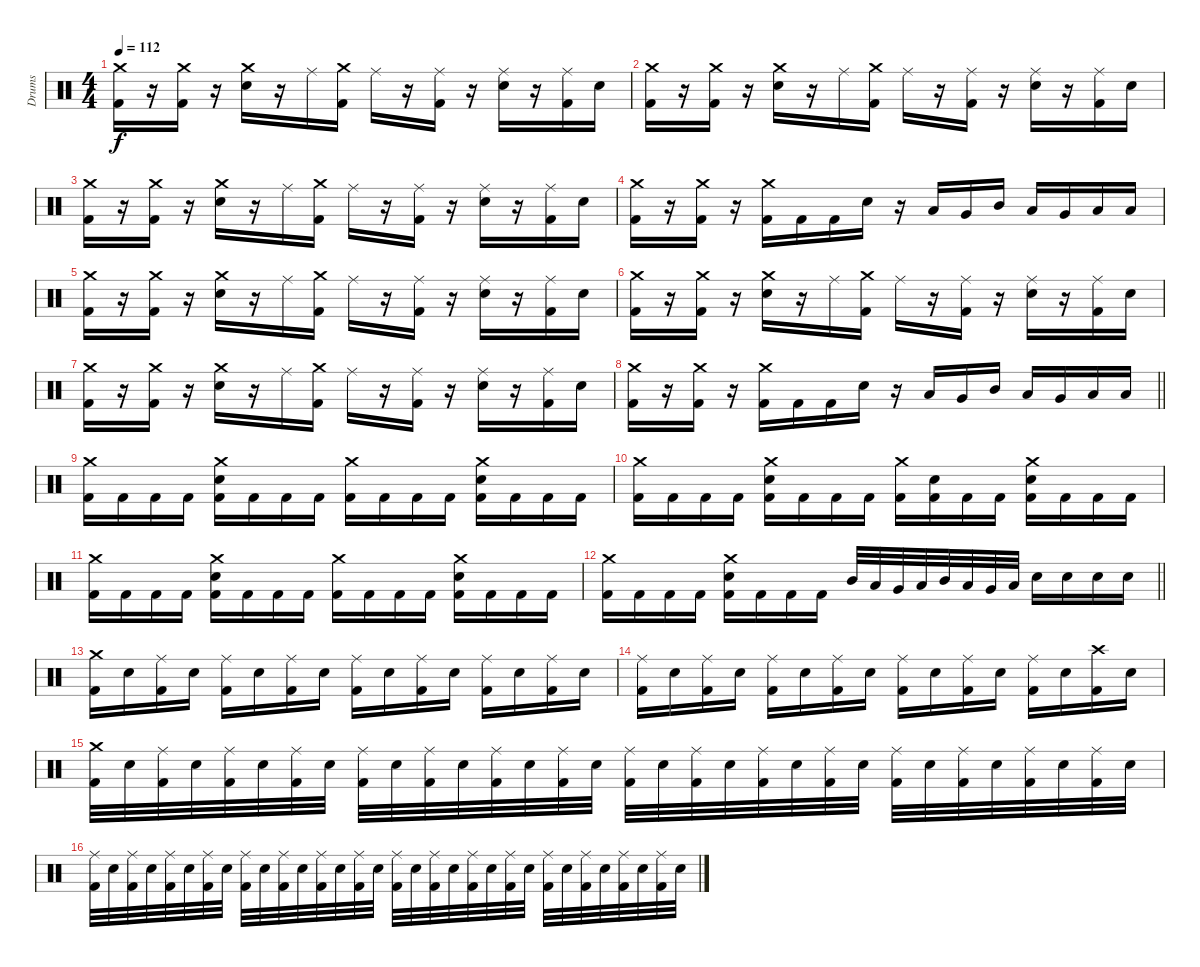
\track ("Drums" "Drums") {instrument percussion}
\staff {score}
\articulation defaults
\ts (4 4)
\section ("" "")
\tempo 112
\clef neutral
\ks c
("Crash medium (hit)" "Kick (hit) 2").16{dy f} r.16 ("Crash medium (hit)" "Kick (hit) 2").16 r.16 ("Crash medium (hit)" "Electric Snare (hit)").16 r.16 "Ride (middle)".16 ("Crash medium (hit)" "Kick (hit) 2").16 "Ride (middle)".16 r.16 ("Ride (middle)" "Kick (hit) 2").16 r.16 ("Ride (middle)" "Electric Snare (hit)").16 r.16 ("Ride (middle)" "Kick (hit) 2").16 "Electric Snare (hit)".16 |
("Crash medium (hit)" "Kick (hit) 2").16 r.16 ("Crash medium (hit)" "Kick (hit) 2").16 r.16 ("Crash medium (hit)" "Electric Snare (hit)").16 r.16 "Ride (middle)".16 ("Crash medium (hit)" "Kick (hit) 2").16 "Ride (middle)".16 r.16 ("Ride (middle)" "Kick (hit) 2").16 r.16 ("Ride (middle)" "Electric Snare (hit)").16 r.16 ("Ride (middle)" "Kick (hit) 2").16 "Electric Snare (hit)".16 |
("Crash medium (hit)" "Kick (hit) 2").16 r.16 ("Crash medium (hit)" "Kick (hit) 2").16 r.16 ("Crash medium (hit)" "Electric Snare (hit)").16 r.16 "Ride (middle)".16 ("Crash medium (hit)" "Kick (hit) 2").16 "Ride (middle)".16 r.16 ("Ride (middle)" "Kick (hit) 2").16 r.16 ("Ride (middle)" "Electric Snare (hit)").16 r.16 ("Ride (middle)" "Kick (hit) 2").16 "Electric Snare (hit)".16 |
("Crash medium (hit)" "Kick (hit) 2").16 r.16 ("Crash medium (hit)" "Kick (hit) 2").16 r.16 ("Crash medium (hit)" "Kick (hit) 2").16 "Kick (hit) 2".16 "Kick (hit) 2".16 "Electric Snare (hit)".16 r.16 "Low Tom (hit)".16 "Very Low Tom (hit)".16 "Mid Tom (hit)".16 "Low Tom (hit)".16 "Very Low Tom (hit)".16 "Low Floor Tom (hit)".16 "Low Floor Tom (hit)".16 |
("Crash medium (hit)" "Kick (hit) 2").16 r.16 ("Crash medium (hit)" "Kick (hit) 2").16 r.16 ("Crash medium (hit)" "Electric Snare (hit)").16 r.16 "Ride (middle)".16 ("Crash medium (hit)" "Kick (hit) 2").16 "Ride (middle)".16 r.16 ("Ride (middle)" "Kick (hit) 2").16 r.16 ("Ride (middle)" "Electric Snare (hit)").16 r.16 ("Ride (middle)" "Kick (hit) 2").16 "Electric Snare (hit)".16 |
("Crash medium (hit)" "Kick (hit) 2").16 r.16 ("Crash medium (hit)" "Kick (hit) 2").16 r.16 ("Crash medium (hit)" "Electric Snare (hit)").16 r.16 "Ride (middle)".16 ("Crash medium (hit)" "Kick (hit) 2").16 "Ride (middle)".16 r.16 ("Ride (middle)" "Kick (hit) 2").16 r.16 ("Ride (middle)" "Electric Snare (hit)").16 r.16 ("Ride (middle)" "Kick (hit) 2").16 "Electric Snare (hit)".16 |
("Crash medium (hit)" "Kick (hit) 2").16 r.16 ("Crash medium (hit)" "Kick (hit) 2").16 r.16 ("Crash medium (hit)" "Electric Snare (hit)").16 r.16 "Ride (middle)".16 ("Crash medium (hit)" "Kick (hit) 2").16 "Ride (middle)".16 r.16 ("Ride (middle)" "Kick (hit) 2").16 r.16 ("Ride (middle)" "Electric Snare (hit)").16 r.16 ("Ride (middle)" "Kick (hit) 2").16 "Electric Snare (hit)".16 |
\barLineRight lightlight
("Crash medium (hit)" "Kick (hit) 2").16 r.16 ("Crash medium (hit)" "Kick (hit) 2").16 r.16 ("Crash medium (hit)" "Kick (hit) 2").16 "Kick (hit) 2".16 "Kick (hit) 2".16 "Electric Snare (hit)".16 r.16 "Low Tom (hit)".16 "Very Low Tom (hit)".16 "Mid Tom (hit)".16 "Low Tom (hit)".16 "Very Low Tom (hit)".16 "Low Floor Tom (hit)".16 "Low Floor Tom (hit)".16 |
\section ("" "")
("Crash medium (hit)" "Kick (hit) 2").16 "Kick (hit) 2".16 "Kick (hit) 2".16 "Kick (hit) 2".16 ("Crash medium (hit)" "Electric Snare (hit)" "Kick (hit) 2").16 "Kick (hit) 2".16 "Kick (hit) 2".16 "Kick (hit) 2".16 ("Crash medium (hit)" "Kick (hit) 2").16 "Kick (hit) 2".16 "Kick (hit) 2".16 "Kick (hit) 2".16 ("Crash medium (hit)" "Electric Snare (hit)" "Kick (hit) 2").16 "Kick (hit) 2".16 "Kick (hit) 2".16 "Kick (hit) 2".16 |
("Crash medium (hit)" "Kick (hit) 2").16 "Kick (hit) 2".16 "Kick (hit) 2".16 "Kick (hit) 2".16 ("Crash medium (hit)" "Electric Snare (hit)" "Kick (hit) 2").16 "Kick (hit) 2".16 "Kick (hit) 2".16 "Kick (hit) 2".16 ("Crash medium (hit)" "Kick (hit) 2").16 ("Electric Snare (hit)" "Kick (hit) 2").16 "Kick (hit) 2".16 "Kick (hit) 2".16 ("Crash medium (hit)" "Electric Snare (hit)" "Kick (hit) 2").16 "Kick (hit) 2".16 "Kick (hit) 2".16 "Kick (hit) 2".16 |
("Crash medium (hit)" "Kick (hit) 2").16 "Kick (hit) 2".16 "Kick (hit) 2".16 "Kick (hit) 2".16 ("Crash medium (hit)" "Electric Snare (hit)" "Kick (hit) 2").16 "Kick (hit) 2".16 "Kick (hit) 2".16 "Kick (hit) 2".16 ("Crash medium (hit)" "Kick (hit) 2").16 "Kick (hit) 2".16 "Kick (hit) 2".16 "Kick (hit) 2".16 ("Crash medium (hit)" "Electric Snare (hit)" "Kick (hit) 2").16 "Kick (hit) 2".16 "Kick (hit) 2".16 "Kick (hit) 2".16 |
\barLineRight lightlight
("Crash medium (hit)" "Kick (hit) 2").16 "Kick (hit) 2".16 "Kick (hit) 2".16 "Kick (hit) 2".16 ("Crash medium (hit)" "Electric Snare (hit)" "Kick (hit) 2").16 "Kick (hit) 2".16 "Kick (hit) 2".16 "Kick (hit) 2".16 "Mid Tom (hit)".32 "Low Tom (hit)".32 "Very Low Tom (hit)".32 "Low Floor Tom (hit)".32 "Mid Tom (hit)".32 "Low Tom (hit)".32 "Very Low Tom (hit)".32 "Low Floor Tom (hit)".32 "Electric Snare (hit)".16 "Electric Snare (hit)".16 "Electric Snare (hit)".16 "Electric Snare (hit)".16 |
\section ("" "")
("Crash medium (hit)" "Kick (hit) 2").16 "Electric Snare (hit)".16 ("Ride (middle)" "Kick (hit) 2").16 "Electric Snare (hit)".16 ("Ride (middle)" "Kick (hit) 2").16 "Electric Snare (hit)".16 ("Ride (middle)" "Kick (hit) 2").16 "Electric Snare (hit)".16 ("Ride (middle)" "Kick (hit) 2").16 "Electric Snare (hit)".16 ("Ride (middle)" "Kick (hit) 2").16 "Electric Snare (hit)".16 ("Ride (middle)" "Kick (hit) 2").16 "Electric Snare (hit)".16 ("Ride (middle)" "Kick (hit) 2").16 "Electric Snare (hit)".16 |
("Ride (middle)" "Kick (hit) 2").16 "Electric Snare (hit)".16 ("Ride (middle)" "Kick (hit) 2").16 "Electric Snare (hit)".16 ("Ride (middle)" "Kick (hit) 2").16 "Electric Snare (hit)".16 ("Ride (middle)" "Kick (hit) 2").16 "Electric Snare (hit)".16 ("Ride (middle)" "Kick (hit) 2").16 "Electric Snare (hit)".16 ("Ride (middle)" "Kick (hit) 2").16 "Electric Snare (hit)".16 ("Ride (middle)" "Kick (hit) 2").16 "Electric Snare (hit)".16 ("Crash high (hit)" "Kick (hit) 2").16 "Electric Snare (hit)".16 |
("Crash medium (hit)" "Kick (hit) 2").32 "Electric Snare (hit)".32 ("Ride (middle)" "Kick (hit) 2").32 "Electric Snare (hit)".32 ("Ride (middle)" "Kick (hit) 2").32 "Electric Snare (hit)".32 ("Ride (middle)" "Kick (hit) 2").32 "Electric Snare (hit)".32 ("Ride (middle)" "Kick (hit) 2").32 "Electric Snare (hit)".32 ("Ride (middle)" "Kick (hit) 2").32 "Electric Snare (hit)".32 ("Ride (middle)" "Kick (hit) 2").32 "Electric Snare (hit)".32 ("Ride (middle)" "Kick (hit) 2").32 "Electric Snare (hit)".32 ("Ride (middle)" "Kick (hit) 2").32 "Electric Snare (hit)".32 ("Ride (middle)" "Kick (hit) 2").32 "Electric Snare (hit)".32 ("Ride (middle)" "Kick (hit) 2").32 "Electric Snare (hit)".32 ("Ride (middle)" "Kick (hit) 2").32 "Electric Snare (hit)".32 ("Ride (middle)" "Kick (hit) 2").32 "Electric Snare (hit)".32 ("Ride (middle)" "Kick (hit) 2").32 "Electric Snare (hit)".32 ("Ride (middle)" "Kick (hit) 2").32 "Electric Snare (hit)".32 ("Ride (middle)" "Kick (hit) 2").32 "Electric Snare (hit)".32 |
("Ride (middle)" "Kick (hit) 2").32 "Electric Snare (hit)".32 ("Ride (middle)" "Kick (hit) 2").32 "Electric Snare (hit)".32 ("Ride (middle)" "Kick (hit) 2").32 "Electric Snare (hit)".32 ("Ride (middle)" "Kick (hit) 2").32 "Electric Snare (hit)".32 ("Ride (middle)" "Kick (hit) 2").32 "Electric Snare (hit)".32 ("Ride (middle)" "Kick (hit) 2").32 "Electric Snare (hit)".32 ("Ride (middle)" "Kick (hit) 2").32 "Electric Snare (hit)".32 ("Ride (middle)" "Kick (hit) 2").32 "Electric Snare (hit)".32 ("Ride (middle)" "Kick (hit) 2").32 "Electric Snare (hit)".32 ("Ride (middle)" "Kick (hit) 2").32 "Electric Snare (hit)".32 ("Ride (middle)" "Kick (hit) 2").32 "Electric Snare (hit)".32 ("Ride (middle)" "Kick (hit) 2").32 "Electric Snare (hit)".32 ("Ride (middle)" "Kick (hit) 2").32 "Electric Snare (hit)".32 ("Ride (middle)" "Kick (hit) 2").32 "Electric Snare (hit)".32 ("Ride (middle)" "Kick (hit) 2").32 "Electric Snare (hit)".32 ("Ride (middle)" "Kick (hit) 2").32 "Electric Snare (hit)".32
